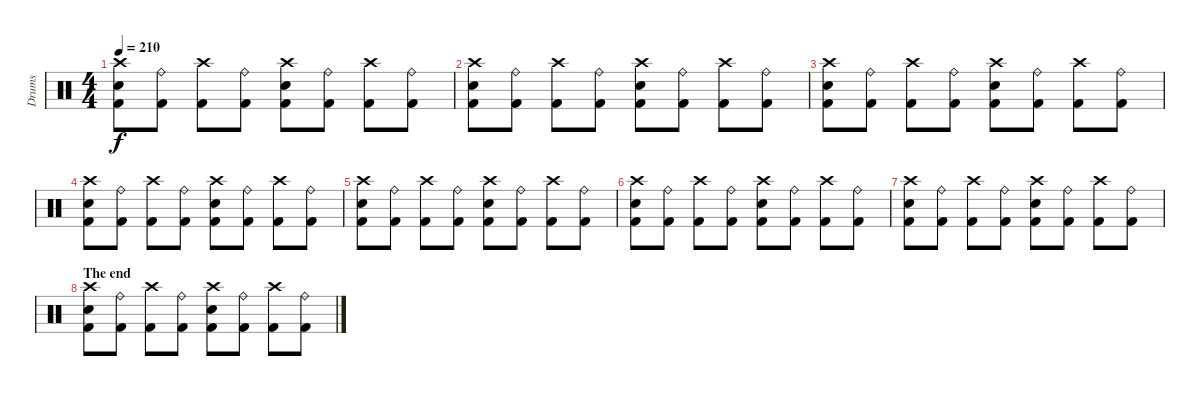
\track ("Drums" "Drums") {instrument percussion}
\staff {score}
\articulation defaults
\ts (4 4)
\tempo 210
\clef neutral
\ks c
("Kick (hit) 2" "Electric Snare (hit)" "Crash high (hit)").8{dy f} ("Kick (hit) 2" "Ride (bell)").8 ("Kick (hit) 2" "Crash high (hit)").8 ("Kick (hit) 2" "Ride (bell)").8 ("Kick (hit) 2" "Crash high (hit)" "Electric Snare (hit)").8 ("Kick (hit) 2" "Ride (bell)").8 ("Kick (hit) 2" "Crash high (hit)").8 ("Kick (hit) 2" "Ride (bell)").8 |
("Kick (hit) 2" "Electric Snare (hit)" "Crash high (hit)").8 ("Kick (hit) 2" "Ride (bell)").8 ("Kick (hit) 2" "Crash high (hit)").8 ("Kick (hit) 2" "Ride (bell)").8 ("Kick (hit) 2" "Crash high (hit)" "Electric Snare (hit)").8 ("Kick (hit) 2" "Ride (bell)").8 ("Kick (hit) 2" "Crash high (hit)").8 ("Kick (hit) 2" "Ride (bell)").8 |
("Kick (hit) 2" "Electric Snare (hit)" "Crash high (hit)").8 ("Kick (hit) 2" "Ride (bell)").8 ("Kick (hit) 2" "Crash high (hit)").8 ("Kick (hit) 2" "Ride (bell)").8 ("Kick (hit) 2" "Crash high (hit)" "Electric Snare (hit)").8 ("Kick (hit) 2" "Ride (bell)").8 ("Kick (hit) 2" "Crash high (hit)").8 ("Kick (hit) 2" "Ride (bell)").8 |
("Kick (hit) 2" "Electric Snare (hit)" "Crash high (hit)").8 ("Kick (hit) 2" "Ride (bell)").8 ("Kick (hit) 2" "Crash high (hit)").8 ("Kick (hit) 2" "Ride (bell)").8 ("Kick (hit) 2" "Crash high (hit)" "Electric Snare (hit)").8 ("Kick (hit) 2" "Ride (bell)").8 ("Kick (hit) 2" "Crash high (hit)").8 ("Kick (hit) 2" "Ride (bell)").8 |
("Kick (hit) 2" "Electric Snare (hit)" "Crash high (hit)").8 ("Kick (hit) 2" "Ride (bell)").8 ("Kick (hit) 2" "Crash high (hit)").8 ("Kick (hit) 2" "Ride (bell)").8 ("Kick (hit) 2" "Crash high (hit)" "Electric Snare (hit)").8 ("Kick (hit) 2" "Ride (bell)").8 ("Kick (hit) 2" "Crash high (hit)").8 ("Kick (hit) 2" "Ride (bell)").8 |
("Kick (hit) 2" "Electric Snare (hit)" "Crash high (hit)").8 ("Kick (hit) 2" "Ride (bell)").8 ("Kick (hit) 2" "Crash high (hit)").8 ("Kick (hit) 2" "Ride (bell)").8 ("Kick (hit) 2" "Crash high (hit)" "Electric Snare (hit)").8 ("Kick (hit) 2" "Ride (bell)").8 ("Kick (hit) 2" "Crash high (hit)").8 ("Kick (hit) 2" "Ride (bell)").8 |
("Kick (hit) 2" "Electric Snare (hit)" "Crash high (hit)").8 ("Kick (hit) 2" "Ride (bell)").8 ("Kick (hit) 2" "Crash high (hit)").8 ("Kick (hit) 2" "Ride (bell)").8 ("Kick (hit) 2" "Crash high (hit)" "Electric Snare (hit)").8 ("Kick (hit) 2" "Ride (bell)").8 ("Kick (hit) 2" "Crash high (hit)").8 ("Kick (hit) 2" "Ride (bell)").8 |
\section ("" "The end")
("Kick (hit) 2" "Electric Snare (hit)" "Crash high (hit)").8 ("Kick (hit) 2" "Ride (bell)").8 ("Kick (hit) 2" "Crash high (hit)").8 ("Kick (hit) 2" "Ride (bell)").8 ("Kick (hit) 2" "Crash high (hit)" "Electric Snare (hit)").8 ("Kick (hit) 2" "Ride (bell)").8 ("Kick (hit) 2" "Crash high (hit)").8 ("Kick (hit) 2" "Ride (bell)").8
